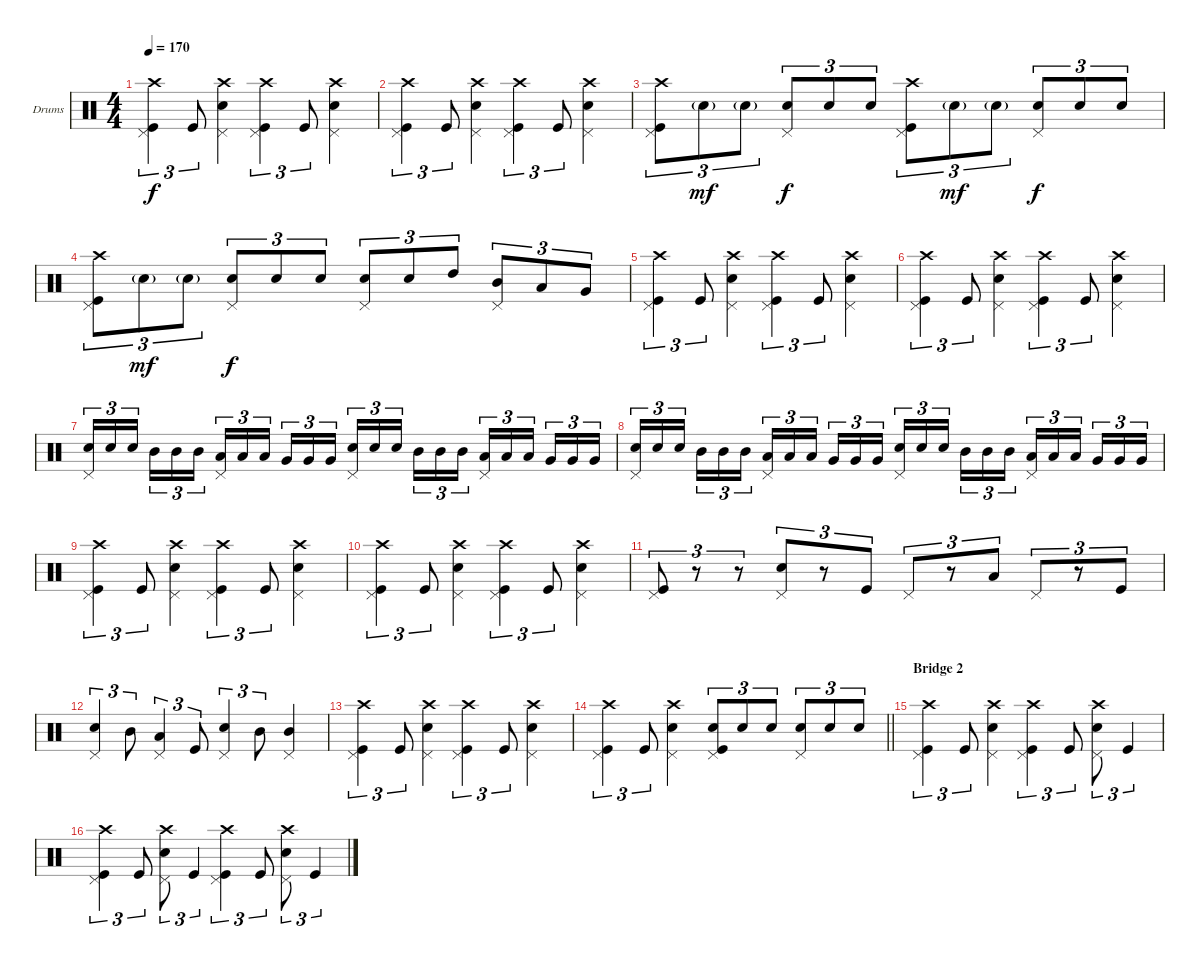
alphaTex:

\bracketExtendMode groupsimilarinstruments
\firstSystemTrackNameOrientation horizontal
\otherSystemsTrackNameOrientation horizontal
\track ("Dave Grohl [Drumms]" "Drums") {instrument percussion}
\staff {score}
\articulation defaults
\ts (4 4)
\tempo 170
\clef neutral
\ks c
("Crash high (hit)" "Pedal Hi-Hat (hit)" "Kick (hit)").4{tu (3 2) dy f} "Kick (hit)".8{tu (3 2)} ("Crash high (hit)" "Pedal Hi-Hat (hit)" "Snare (hit) 2").4 ("Crash high (hit)" "Pedal Hi-Hat (hit)" "Kick (hit)").4{tu (3 2)} "Kick (hit)".8{tu (3 2)} ("Crash high (hit)" "Pedal Hi-Hat (hit)" "Snare (hit) 2").4 |
("Crash high (hit)" "Pedal Hi-Hat (hit)" "Kick (hit)").4{tu (3 2)} "Kick (hit)".8{tu (3 2)} ("Crash high (hit)" "Pedal Hi-Hat (hit)" "Snare (hit) 2").4 ("Crash high (hit)" "Pedal Hi-Hat (hit)" "Kick (hit)").4{tu (3 2)} "Kick (hit)".8{tu (3 2)} ("Crash high (hit)" "Pedal Hi-Hat (hit)" "Snare (hit) 2").4 |
("Crash high (hit)" "Pedal Hi-Hat (hit)" "Kick (hit)").8{tu (3 2)} "Snare (hit) 2"{g}.8{tu (3 2) dy mf} "Snare (hit) 2"{g}.8{tu (3 2)} ("Pedal Hi-Hat (hit)" "Snare (hit) 2").8{tu (3 2) dy f} "Snare (hit) 2".8{tu (3 2)} "Snare (hit) 2".8{tu (3 2)} ("Crash high (hit)" "Pedal Hi-Hat (hit)" "Kick (hit)").8{tu (3 2)} "Snare (hit) 2"{g}.8{tu (3 2) dy mf} "Snare (hit) 2"{g}.8{tu (3 2)} ("Pedal Hi-Hat (hit)" "Snare (hit) 2").8{tu (3 2) dy f} "Snare (hit) 2".8{tu (3 2)} "Snare (hit) 2".8{tu (3 2)} |
("Crash high (hit)" "Pedal Hi-Hat (hit)" "Kick (hit)").8{tu (3 2)} "Snare (hit) 2"{g}.8{tu (3 2) dy mf} "Snare (hit) 2"{g}.8{tu (3 2)} ("Pedal Hi-Hat (hit)" "Snare (hit) 2").8{tu (3 2) dy f} "Snare (hit) 2".8{tu (3 2)} "Snare (hit) 2".8{tu (3 2)} ("Pedal Hi-Hat (hit)" "Snare (hit) 2").8{tu (3 2)} "Snare (hit) 2".8{tu (3 2)} "High Tom (hit)".8{tu (3 2)} ("Pedal Hi-Hat (hit)" "Mid Tom (hit)").8{tu (3 2)} "Low Tom (hit)".8{tu (3 2)} "Very Low Tom (hit)".8{tu (3 2)} |
("Crash high (hit)" "Pedal Hi-Hat (hit)" "Kick (hit)").4{tu (3 2)} "Kick (hit)".8{tu (3 2)} ("Crash high (hit)" "Pedal Hi-Hat (hit)" "Snare (hit) 2").4 ("Crash high (hit)" "Pedal Hi-Hat (hit)" "Kick (hit)").4{tu (3 2)} "Kick (hit)".8{tu (3 2)} ("Crash high (hit)" "Pedal Hi-Hat (hit)" "Snare (hit) 2").4 |
("Crash high (hit)" "Pedal Hi-Hat (hit)" "Kick (hit)").4{tu (3 2)} "Kick (hit)".8{tu (3 2)} ("Crash high (hit)" "Pedal Hi-Hat (hit)" "Snare (hit) 2").4 ("Crash high (hit)" "Pedal Hi-Hat (hit)" "Kick (hit)").4{tu (3 2)} "Kick (hit)".8{tu (3 2)} ("Crash high (hit)" "Pedal Hi-Hat (hit)" "Snare (hit) 2").4 |
("Pedal Hi-Hat (hit)" "Snare (hit) 2").16{tu (3 2)} "Snare (hit) 2".16{tu (3 2)} "Snare (hit) 2".16{tu (3 2)} "Mid Tom (hit)".16{tu (3 2)} "Mid Tom (hit)".16{tu (3 2)} "Mid Tom (hit)".16{tu (3 2)} ("Pedal Hi-Hat (hit)" "Low Tom (hit)").16{tu (3 2)} "Low Tom (hit)".16{tu (3 2)} "Low Tom (hit)".16{tu (3 2)} "Very Low Tom (hit)".16{tu (3 2)} "Very Low Tom (hit)".16{tu (3 2)} "Very Low Tom (hit)".16{tu (3 2)} ("Pedal Hi-Hat (hit)" "Snare (hit) 2").16{tu (3 2)} "Snare (hit) 2".16{tu (3 2)} "Snare (hit) 2".16{tu (3 2)} "Mid Tom (hit)".16{tu (3 2)} "Mid Tom (hit)".16{tu (3 2)} "Mid Tom (hit)".16{tu (3 2)} ("Pedal Hi-Hat (hit)" "Low Tom (hit)").16{tu (3 2)} "Low Tom (hit)".16{tu (3 2)} "Low Tom (hit)".16{tu (3 2)} "Very Low Tom (hit)".16{tu (3 2)} "Very Low Tom (hit)".16{tu (3 2)} "Very Low Tom (hit)".16{tu (3 2)} |
("Pedal Hi-Hat (hit)" "Snare (hit) 2").16{tu (3 2)} "Snare (hit) 2".16{tu (3 2)} "Snare (hit) 2".16{tu (3 2)} "Mid Tom (hit)".16{tu (3 2)} "Mid Tom (hit)".16{tu (3 2)} "Mid Tom (hit)".16{tu (3 2)} ("Pedal Hi-Hat (hit)" "Low Tom (hit)").16{tu (3 2)} "Low Tom (hit)".16{tu (3 2)} "Low Tom (hit)".16{tu (3 2)} "Very Low Tom (hit)".16{tu (3 2)} "Very Low Tom (hit)".16{tu (3 2)} "Very Low Tom (hit)".16{tu (3 2)} ("Pedal Hi-Hat (hit)" "Snare (hit) 2").16{tu (3 2)} "Snare (hit) 2".16{tu (3 2)} "Snare (hit) 2".16{tu (3 2)} "Mid Tom (hit)".16{tu (3 2)} "Mid Tom (hit)".16{tu (3 2)} "Mid Tom (hit)".16{tu (3 2)} ("Pedal Hi-Hat (hit)" "Low Tom (hit)").16{tu (3 2)} "Low Tom (hit)".16{tu (3 2)} "Low Tom (hit)".16{tu (3 2)} "Very Low Tom (hit)".16{tu (3 2)} "Very Low Tom (hit)".16{tu (3 2)} "Very Low Tom (hit)".16{tu (3 2)} |
("Crash high (hit)" "Pedal Hi-Hat (hit)" "Kick (hit)").4{tu (3 2)} "Kick (hit)".8{tu (3 2)} ("Crash high (hit)" "Pedal Hi-Hat (hit)" "Snare (hit) 2").4 ("Crash high (hit)" "Pedal Hi-Hat (hit)" "Kick (hit)").4{tu (3 2)} "Kick (hit)".8{tu (3 2)} ("Crash high (hit)" "Pedal Hi-Hat (hit)" "Snare (hit) 2").4 |
("Crash high (hit)" "Pedal Hi-Hat (hit)" "Kick (hit)").4{tu (3 2)} "Kick (hit)".8{tu (3 2)} ("Crash high (hit)" "Pedal Hi-Hat (hit)" "Snare (hit) 2").4 ("Crash high (hit)" "Pedal Hi-Hat (hit)" "Kick (hit)").4{tu (3 2)} "Kick (hit)".8{tu (3 2)} ("Crash high (hit)" "Pedal Hi-Hat (hit)" "Snare (hit) 2").4 |
("Pedal Hi-Hat (hit)" "Kick (hit)").8{tu (3 2)} r.8{tu (3 2)} r.8{tu (3 2)} ("Pedal Hi-Hat (hit)" "Snare (hit) 2").8{tu (3 2)} r.8{tu (3 2)} "Kick (hit)".8{tu (3 2)} "Pedal Hi-Hat (hit)".8{tu (3 2)} r.8{tu (3 2)} "Low Tom (hit)".8{tu (3 2)} "Pedal Hi-Hat (hit)".8{tu (3 2)} r.8{tu (3 2)} "Kick (hit)".8{tu (3 2)} |
("Pedal Hi-Hat (hit)" "Snare (hit) 2").4{tu (3 2)} "Mid Tom (hit)".8{tu (3 2)} ("Pedal Hi-Hat (hit)" "Low Tom (hit)").4{tu (3 2)} "Kick (hit)".8{tu (3 2)} ("Pedal Hi-Hat (hit)" "Snare (hit) 2").4{tu (3 2)} "Mid Tom (hit)".8{tu (3 2)} ("Pedal Hi-Hat (hit)" "Mid Tom (hit)").4 |
("Crash high (hit)" "Pedal Hi-Hat (hit)" "Kick (hit)").4{tu (3 2)} "Kick (hit)".8{tu (3 2)} ("Crash high (hit)" "Pedal Hi-Hat (hit)" "Snare (hit) 2").4 ("Crash high (hit)" "Pedal Hi-Hat (hit)" "Kick (hit)").4{tu (3 2)} "Kick (hit)".8{tu (3 2)} ("Crash high (hit)" "Pedal Hi-Hat (hit)" "Snare (hit) 2").4 |
\barLineRight lightlight
("Crash high (hit)" "Pedal Hi-Hat (hit)" "Kick (hit)").4{tu (3 2)} "Kick (hit)".8{tu (3 2)} ("Crash high (hit)" "Pedal Hi-Hat (hit)" "Snare (hit) 2").4 ("Pedal Hi-Hat (hit)" "Snare (hit) 2" "Kick (hit)").8{tu (3 2)} "Snare (hit) 2".8{tu (3 2)} "Snare (hit) 2".8{tu (3 2)} ("Pedal Hi-Hat (hit)" "Snare (hit) 2").8{tu (3 2)} "Snare (hit) 2".8{tu (3 2)} "Snare (hit) 2".8{tu (3 2)} |
\section ("" "Bridge 2")
("Crash high (hit)" "Pedal Hi-Hat (hit)" "Kick (hit)").4{tu (3 2)} "Kick (hit)".8{tu (3 2)} ("Crash high (hit)" "Pedal Hi-Hat (hit)" "Snare (hit) 2").4 ("Crash high (hit)" "Pedal Hi-Hat (hit)" "Kick (hit)").4{tu (3 2)} "Kick (hit)".8{tu (3 2)} ("Crash high (hit)" "Pedal Hi-Hat (hit)" "Snare (hit) 2").8{tu (3 2)} "Kick (hit)".4{tu (3 2)} |
("Crash high (hit)" "Pedal Hi-Hat (hit)" "Kick (hit)").4{tu (3 2)} "Kick (hit)".8{tu (3 2)} ("Crash high (hit)" "Pedal Hi-Hat (hit)" "Snare (hit) 2").8{tu (3 2)} "Kick (hit)".4{tu (3 2)} ("Crash high (hit)" "Pedal Hi-Hat (hit)" "Kick (hit)").4{tu (3 2)} "Kick (hit)".8{tu (3 2)} ("Crash high (hit)" "Pedal Hi-Hat (hit)" "Snare (hit) 2").8{tu (3 2)} "Kick (hit)".4{tu (3 2)}
